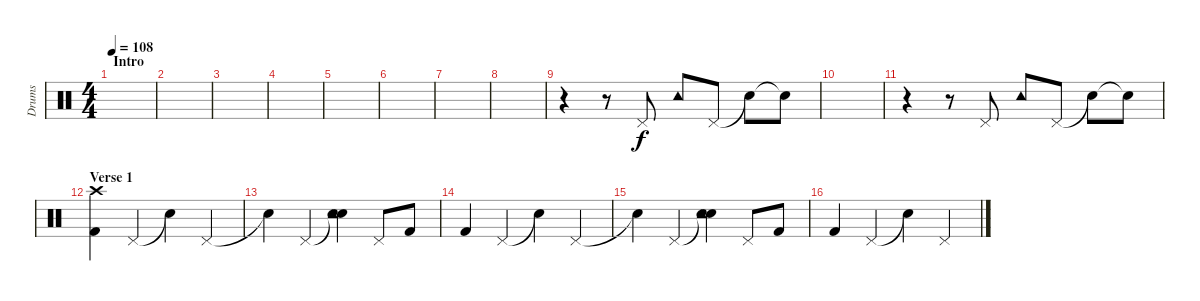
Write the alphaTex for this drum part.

\track ("Drums" "Drums") {instrument percussion}
\staff {score}
\articulation defaults
\ts (4 4)
\section ("" "Intro")
\tempo 108
\clef neutral
\ks c
|
|
|
|
|
|
|
|
r.4 r.8 "Pedal Hi-Hat (hit)".8 "Tambourine (hit)".8 "Pedal Hi-Hat (hit)".8 "Snare (hit)"{t}.8 "Snare (hit)"{t}.8 |
|
r.4 r.8 "Pedal Hi-Hat (hit)".8 "Tambourine (hit)".8 "Pedal Hi-Hat (hit)".8 "Snare (hit)"{t}.8 "Snare (hit)"{t}.8 |
\section ("" "Verse 1")
("Kick (hit) 2" "Crash high (hit)").4 "Pedal Hi-Hat (hit)".4 "Snare (hit)"{t}.4 "Pedal Hi-Hat (hit)".4 |
"Snare (hit)"{t}.4 "Pedal Hi-Hat (hit)".4 ("Snare (hit)"{t} "Electric Snare (hit)" "Tambourine (hit)").4 "Pedal Hi-Hat (hit)".8 "Kick (hit) 2".8 |
"Kick (hit) 2".4 "Pedal Hi-Hat (hit)".4 "Snare (hit)"{t}.4 "Pedal Hi-Hat (hit)".4 |
"Snare (hit)"{t}.4 "Pedal Hi-Hat (hit)".4 ("Snare (hit)"{t} "Electric Snare (hit)" "Tambourine (hit)").4 "Pedal Hi-Hat (hit)".8 "Kick (hit) 2".8 |
"Kick (hit) 2".4 "Pedal Hi-Hat (hit)".4 "Snare (hit)"{t}.4 "Pedal Hi-Hat (hit)".4
